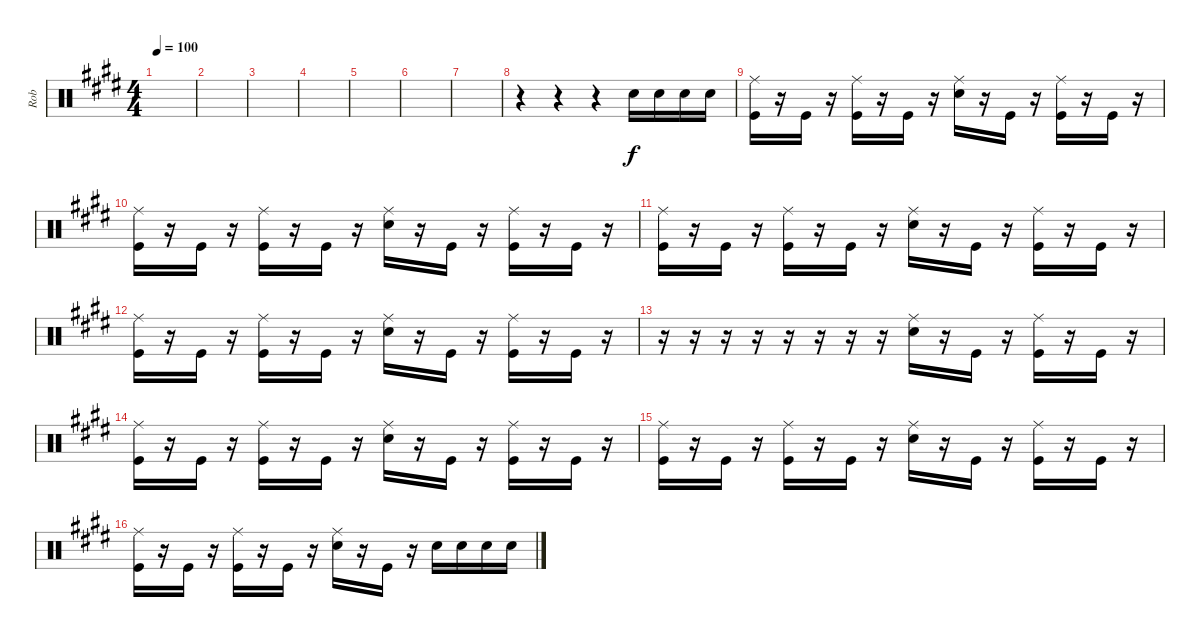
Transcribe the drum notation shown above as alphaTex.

\track ("Rob" "Rob") {instrument percussion}
\staff {score}
\articulation defaults
\ts (4 4)
\tempo 100
\clef neutral
\ks e
|
|
|
|
|
|
|
r.4 r.4 r.4 "Snare (hit) 2".16 "Snare (hit) 2".16 "Snare (hit) 2".16 "Snare (hit) 2".16 |
("Kick (hit)" "Ride (middle)").16 r.16 "Kick (hit)".16 r.16 ("Kick (hit)" "Ride (middle)").16 r.16 "Kick (hit)".16 r.16 ("Snare (hit) 2" "Ride (middle)").16 r.16 "Kick (hit)".16 r.16 ("Kick (hit)" "Ride (middle)").16 r.16 "Kick (hit)".16 r.16 |
("Kick (hit)" "Ride (middle)").16 r.16 "Kick (hit)".16 r.16 ("Kick (hit)" "Ride (middle)").16 r.16 "Kick (hit)".16 r.16 ("Snare (hit) 2" "Ride (middle)").16 r.16 "Kick (hit)".16 r.16 ("Kick (hit)" "Ride (middle)").16 r.16 "Kick (hit)".16 r.16 |
("Kick (hit)" "Ride (middle)").16 r.16 "Kick (hit)".16 r.16 ("Kick (hit)" "Ride (middle)").16 r.16 "Kick (hit)".16 r.16 ("Snare (hit) 2" "Ride (middle)").16 r.16 "Kick (hit)".16 r.16 ("Kick (hit)" "Ride (middle)").16 r.16 "Kick (hit)".16 r.16 |
("Kick (hit)" "Ride (middle)").16 r.16 "Kick (hit)".16 r.16 ("Kick (hit)" "Ride (middle)").16 r.16 "Kick (hit)".16 r.16 ("Snare (hit) 2" "Ride (middle)").16 r.16 "Kick (hit)".16 r.16 ("Kick (hit)" "Ride (middle)").16 r.16 "Kick (hit)".16 r.16 |
r.16 r.16 r.16 r.16 r.16 r.16 r.16 r.16 ("Snare (hit) 2" "Ride (middle)").16 r.16 "Kick (hit)".16 r.16 ("Kick (hit)" "Ride (middle)").16 r.16 "Kick (hit)".16 r.16 |
("Kick (hit)" "Ride (middle)").16 r.16 "Kick (hit)".16 r.16 ("Kick (hit)" "Ride (middle)").16 r.16 "Kick (hit)".16 r.16 ("Snare (hit) 2" "Ride (middle)").16 r.16 "Kick (hit)".16 r.16 ("Kick (hit)" "Ride (middle)").16 r.16 "Kick (hit)".16 r.16 |
("Kick (hit)" "Ride (middle)").16 r.16 "Kick (hit)".16 r.16 ("Kick (hit)" "Ride (middle)").16 r.16 "Kick (hit)".16 r.16 ("Snare (hit) 2" "Ride (middle)").16 r.16 "Kick (hit)".16 r.16 ("Kick (hit)" "Ride (middle)").16 r.16 "Kick (hit)".16 r.16 |
("Kick (hit)" "Ride (middle)").16 r.16 "Kick (hit)".16 r.16 ("Kick (hit)" "Ride (middle)").16 r.16 "Kick (hit)".16 r.16 ("Snare (hit) 2" "Ride (middle)").16 r.16 "Kick (hit)".16 r.16 "Snare (hit) 2".16 "Snare (hit) 2".16 "Snare (hit) 2".16 "Snare (hit) 2".16
